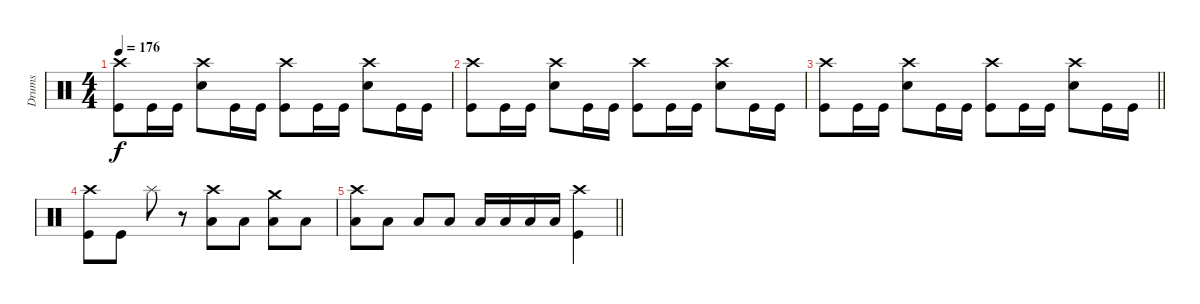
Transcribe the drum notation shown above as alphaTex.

\track ("Drums" "Drums") {instrument percussion}
\staff {score}
\articulation defaults
\ts (4 4)
\tempo 176
\clef neutral
\ks c
("Crash high (hit)" "Kick (hit)").8{dy f} "Kick (hit)".16 "Kick (hit)".16 ("Crash high (hit)" "Snare (hit) 2").8 "Kick (hit)".16 "Kick (hit)".16 ("Crash high (hit)" "Kick (hit)").8 "Kick (hit)".16 "Kick (hit)".16 ("Crash high (hit)" "Snare (hit) 2").8 "Kick (hit)".16 "Kick (hit)".16 |
("Crash high (hit)" "Kick (hit)").8 "Kick (hit)".16 "Kick (hit)".16 ("Crash high (hit)" "Snare (hit) 2").8 "Kick (hit)".16 "Kick (hit)".16 ("Crash high (hit)" "Kick (hit)").8 "Kick (hit)".16 "Kick (hit)".16 ("Crash high (hit)" "Snare (hit) 2").8 "Kick (hit)".16 "Kick (hit)".16 |
\barLineRight lightlight
("Crash high (hit)" "Kick (hit)").8 "Kick (hit)".16 "Kick (hit)".16 ("Crash high (hit)" "Snare (hit) 2").8 "Kick (hit)".16 "Kick (hit)".16 ("Crash high (hit)" "Kick (hit)").8 "Kick (hit)".16 "Kick (hit)".16 ("Crash high (hit)" "Snare (hit) 2").8 "Kick (hit)".16 "Kick (hit)".16 |
("Crash high (hit)" "Kick (hit)").8 "Kick (hit)".8 "Splash (hit)".8 r.8 ("Crash high (hit)" "Low Tom (hit)").8 "Low Tom (hit)".8 ("Low Tom (hit)" "Crash medium (hit)").8 "Low Tom (hit)".8 |
\barLineRight lightlight
("Low Floor Tom (hit)" "Crash high (hit)").8 "Low Floor Tom (hit)".8 "Low Floor Tom (hit)".8 "Low Floor Tom (hit)".8 "Low Tom (hit)".16 "Low Tom (hit)".16 "Low Tom (hit)".16 "Low Tom (hit)".16 ("Crash high (hit)" "Kick (hit)").4
